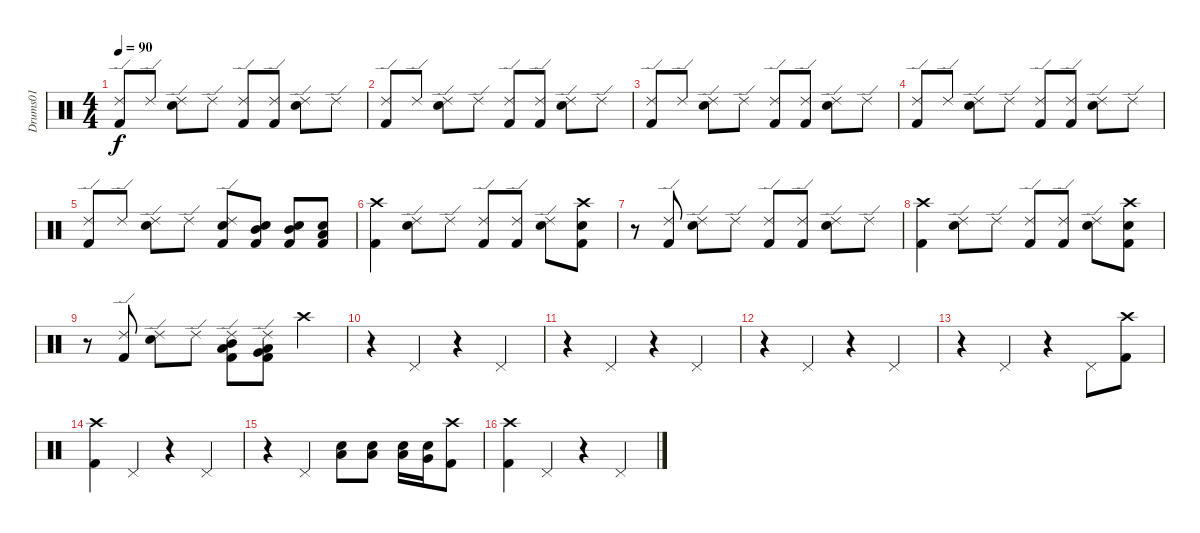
\track ("Drums01" "Drums01") {instrument percussion}
\staff {score}
\articulation defaults
\ts (4 4)
\tempo 90
\clef neutral
\ks c
("Ride (edge) 2" "Kick (hit) 2").8{dy f} "Ride (edge) 2".8 ("Ride (edge) 2" "Snare (hit) 2").8 "Ride (edge) 2".8 ("Ride (edge) 2" "Kick (hit) 2").8 ("Ride (edge) 2" "Kick (hit) 2").8 ("Ride (edge) 2" "Snare (hit) 2").8 "Ride (edge) 2".8 |
("Ride (edge) 2" "Kick (hit) 2").8 "Ride (edge) 2".8 ("Ride (edge) 2" "Snare (hit) 2").8 "Ride (edge) 2".8 ("Ride (edge) 2" "Kick (hit) 2").8 ("Ride (edge) 2" "Kick (hit) 2").8 ("Ride (edge) 2" "Snare (hit) 2").8 "Ride (edge) 2".8 |
("Ride (edge) 2" "Kick (hit) 2").8 "Ride (edge) 2".8 ("Ride (edge) 2" "Snare (hit) 2").8 "Ride (edge) 2".8 ("Ride (edge) 2" "Kick (hit) 2").8 ("Ride (edge) 2" "Kick (hit) 2").8 ("Ride (edge) 2" "Snare (hit) 2").8 "Ride (edge) 2".8 |
("Ride (edge) 2" "Kick (hit) 2").8 "Ride (edge) 2".8 ("Ride (edge) 2" "Snare (hit) 2").8 "Ride (edge) 2".8 ("Ride (edge) 2" "Kick (hit) 2").8 ("Ride (edge) 2" "Kick (hit) 2").8 ("Ride (edge) 2" "Snare (hit) 2").8 "Ride (edge) 2".8 |
("Ride (edge) 2" "Kick (hit) 2").8 "Ride (edge) 2".8 ("Ride (edge) 2" "Snare (hit) 2").8 "Ride (edge) 2".8 ("Ride (edge) 2" "Snare (hit) 2" "Kick (hit) 2").8 ("Mid Tom (hit)" "Snare (hit) 2" "Kick (hit) 2").8 ("Mid Tom (hit)" "Snare (hit) 2" "Kick (hit) 2").8 ("Low Tom (hit)" "Snare (hit) 2" "Kick (hit) 2").8 |
("Crash high (hit)" "Kick (hit) 2").4 ("Ride (edge) 2" "Snare (hit) 2").8 "Ride (edge) 2".8 ("Ride (edge) 2" "Kick (hit) 2").8 ("Ride (edge) 2" "Kick (hit) 2").8 ("Ride (edge) 2" "Snare (hit) 2").8 ("Crash high (hit)" "Snare (hit) 2" "Kick (hit) 2").8 |
r.8 ("Ride (edge) 2" "Kick (hit) 2").8 ("Ride (edge) 2" "Snare (hit) 2").8 "Ride (edge) 2".8 ("Ride (edge) 2" "Kick (hit) 2").8 ("Ride (edge) 2" "Kick (hit) 2").8 ("Ride (edge) 2" "Snare (hit) 2").8 "Ride (edge) 2".8 |
("Crash high (hit)" "Kick (hit) 2").4 ("Ride (edge) 2" "Snare (hit) 2").8 "Ride (edge) 2".8 ("Ride (edge) 2" "Kick (hit) 2").8 ("Ride (edge) 2" "Kick (hit) 2").8 ("Ride (edge) 2" "Snare (hit) 2").8 ("Crash high (hit)" "Snare (hit) 2" "Kick (hit) 2").8 |
r.8 ("Ride (edge) 2" "Kick (hit) 2").8 ("Ride (edge) 2" "Snare (hit) 2").8 "Ride (edge) 2".8 ("Ride (edge) 2" "Mid Tom (hit)" "Low Tom (hit)" "Kick (hit) 2").8 ("Ride (edge) 2" "Low Tom (hit)" "Very Low Tom (hit)" "Kick (hit) 2").8 "Crash high (hit)".4 |
r.4 "Pedal Hi-Hat (hit)".4 r.4 "Pedal Hi-Hat (hit)".4 |
r.4 "Pedal Hi-Hat (hit)".4 r.4 "Pedal Hi-Hat (hit)".4 |
r.4 "Pedal Hi-Hat (hit)".4 r.4 "Pedal Hi-Hat (hit)".4 |
r.4 "Pedal Hi-Hat (hit)".4 r.4 "Pedal Hi-Hat (hit)".8 ("Crash high (hit)" "Kick (hit) 2").8 |
("Crash high (hit)" "Kick (hit) 2").4 "Pedal Hi-Hat (hit)".4 r.4 "Pedal Hi-Hat (hit)".4 |
r.4 "Pedal Hi-Hat (hit)".4 ("Low Tom (hit)" "Snare (hit) 2").8 ("Low Tom (hit)" "Snare (hit) 2").8 ("Low Tom (hit)" "Snare (hit) 2").16 ("Very Low Tom (hit)" "Snare (hit) 2").16 ("Crash high (hit)" "Kick (hit) 2").8 |
("Crash high (hit)" "Kick (hit) 2").4 "Pedal Hi-Hat (hit)".4 r.4 "Pedal Hi-Hat (hit)".4
